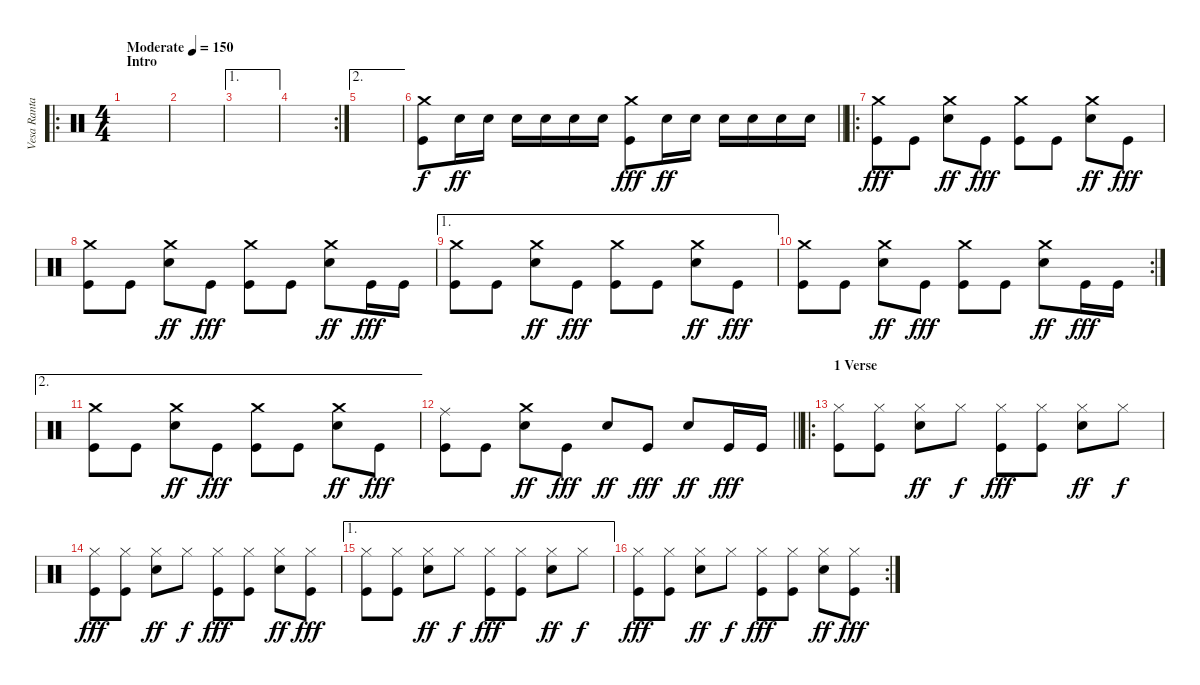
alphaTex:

\track ("Vesa Ranta" "Vesa Ranta") {instrument percussion}
\staff {score}
\articulation defaults
\ro
\ts (4 4)
\section ("" "Intro")
\tempo (150 "Moderate")
\clef neutral
\ks c
|
|
\ae 1
|
\rc 2
|
\ae 2
|
\barLineRight lightlight
("Crash medium (hit)" "Kick (hit)").8 "Snare (hit) 2".16{dy ff} "Snare (hit) 2".16 "Snare (hit) 2".16 "Snare (hit) 2".16 "Snare (hit) 2".16 "Snare (hit) 2".16 ("Crash medium (hit)" "Kick (hit)").8{dy fff} "Snare (hit) 2".16{dy ff} "Snare (hit) 2".16 "Snare (hit) 2".16 "Snare (hit) 2".16 "Snare (hit) 2".16 "Snare (hit) 2".16 |
\ro
("Crash medium (hit)" "Kick (hit)").8{dy fff} "Kick (hit)".8 ("Crash medium (hit)" "Snare (hit) 2").8{dy ff} "Kick (hit)".8{dy fff} ("Crash medium (hit)" "Kick (hit)").8 "Kick (hit)".8 ("Crash medium (hit)" "Snare (hit) 2").8{dy ff} "Kick (hit)".8{dy fff} |
("Crash medium (hit)" "Kick (hit)").8 "Kick (hit)".8 ("Crash medium (hit)" "Snare (hit) 2").8{dy ff} "Kick (hit)".8{dy fff} ("Crash medium (hit)" "Kick (hit)").8 "Kick (hit)".8 ("Crash medium (hit)" "Snare (hit) 2").8{dy ff} "Kick (hit)".16{dy fff} "Kick (hit)".16 |
\ae 1
("Crash medium (hit)" "Kick (hit)").8 "Kick (hit)".8 ("Crash medium (hit)" "Snare (hit) 2").8{dy ff} "Kick (hit)".8{dy fff} ("Crash medium (hit)" "Kick (hit)").8 "Kick (hit)".8 ("Crash medium (hit)" "Snare (hit) 2").8{dy ff} "Kick (hit)".8{dy fff} |
\rc 2
("Crash medium (hit)" "Kick (hit)").8 "Kick (hit)".8 ("Crash medium (hit)" "Snare (hit) 2").8{dy ff} "Kick (hit)".8{dy fff} ("Crash medium (hit)" "Kick (hit)").8 "Kick (hit)".8 ("Crash medium (hit)" "Snare (hit) 2").8{dy ff} "Kick (hit)".16{dy fff} "Kick (hit)".16 |
\ae 2
("Crash medium (hit)" "Kick (hit)").8 "Kick (hit)".8 ("Crash medium (hit)" "Snare (hit) 2").8{dy ff} "Kick (hit)".8{dy fff} ("Crash medium (hit)" "Kick (hit)").8 "Kick (hit)".8 ("Crash medium (hit)" "Snare (hit) 2").8{dy ff} "Kick (hit)".8{dy fff} |
\barLineRight lightlight
("Ride (middle)" "Kick (hit)").8 "Kick (hit)".8 ("Crash medium (hit)" "Snare (hit) 2").8{dy ff} "Kick (hit)".8{dy fff} "Snare (hit) 2".8{dy ff} "Kick (hit)".8{dy fff} "Snare (hit) 2".8{dy ff} "Kick (hit)".16{dy fff} "Kick (hit)".16 |
\ro
\section ("" "1 Verse")
("Hi-Hat (closed)" "Kick (hit)").8 ("Hi-Hat (closed)" "Kick (hit)").8 ("Hi-Hat (closed)" "Snare (hit) 2").8{dy ff} "Hi-Hat (closed)".8{dy f} ("Hi-Hat (closed)" "Kick (hit)").8{dy fff} ("Hi-Hat (closed)" "Kick (hit)").8 ("Hi-Hat (closed)" "Snare (hit) 2").8{dy ff} "Hi-Hat (closed)".8{dy f} |
("Hi-Hat (closed)" "Kick (hit)").8{dy fff} ("Hi-Hat (closed)" "Kick (hit)").8 ("Hi-Hat (closed)" "Snare (hit) 2").8{dy ff} "Hi-Hat (closed)".8{dy f} ("Hi-Hat (closed)" "Kick (hit)").8{dy fff} ("Hi-Hat (closed)" "Kick (hit)").8 ("Hi-Hat (closed)" "Snare (hit) 2").8{dy ff} ("Hi-Hat (closed)" "Kick (hit)").8{dy fff} |
\ae 1
("Hi-Hat (closed)" "Kick (hit)").8 ("Hi-Hat (closed)" "Kick (hit)").8 ("Hi-Hat (closed)" "Snare (hit) 2").8{dy ff} "Hi-Hat (closed)".8{dy f} ("Hi-Hat (closed)" "Kick (hit)").8{dy fff} ("Hi-Hat (closed)" "Kick (hit)").8 ("Hi-Hat (closed)" "Snare (hit) 2").8{dy ff} "Hi-Hat (closed)".8{dy f} |
\rc 2
("Hi-Hat (closed)" "Kick (hit)").8{dy fff} ("Hi-Hat (closed)" "Kick (hit)").8 ("Hi-Hat (closed)" "Snare (hit) 2").8{dy ff} "Hi-Hat (closed)".8{dy f} ("Hi-Hat (closed)" "Kick (hit)").8{dy fff} ("Hi-Hat (closed)" "Kick (hit)").8 ("Hi-Hat (closed)" "Snare (hit) 2").8{dy ff} ("Hi-Hat (closed)" "Kick (hit)").8{dy fff}
